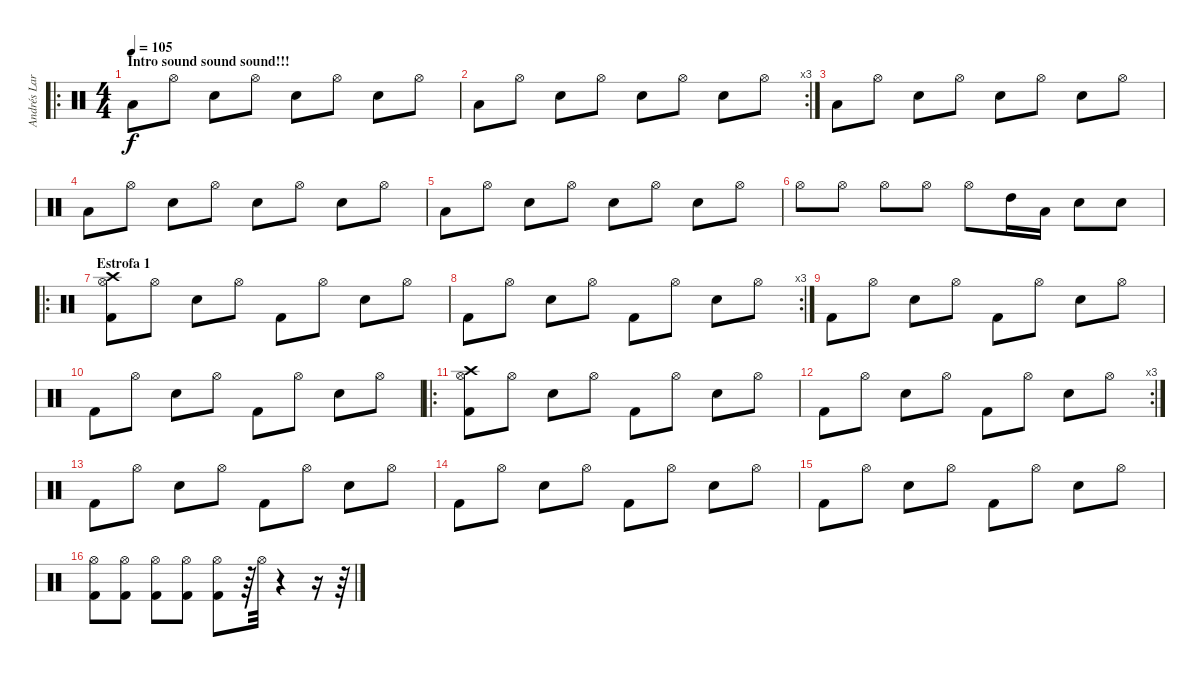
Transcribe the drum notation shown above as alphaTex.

\track ("Andrés Larraín (batería)" "Andrés Lar") {instrument percussion}
\staff {score}
\articulation defaults
\ro
\ts (4 4)
\section ("" "Intro sound sound sound!!!")
\tempo 105
\clef neutral
\ks c "Low Tom (hit)".8{dy f} "Hi-Hat (open)".8 "Hand Clap (hit)".8 "Hi-Hat (open)".8 "Hand Clap (hit)".8 "Hi-Hat (open)".8 "Electric Snare (hit)".8 "Hi-Hat (open)".8
|
\rc 3 "Low Tom (hit)".8 "Hi-Hat (open)".8 "Hand Clap (hit)".8 "Hi-Hat (open)".8 "Hand Clap (hit)".8 "Hi-Hat (open)".8 "Electric Snare (hit)".8 "Hi-Hat (open)".8
|
"Low Tom (hit)".8 "Hi-Hat (open)".8 "Hand Clap (hit)".8 "Hi-Hat (open)".8 "Hand Clap (hit)".8 "Hi-Hat (open)".8 "Electric Snare (hit)".8 "Hi-Hat (open)".8 |
"Low Tom (hit)".8 "Hi-Hat (open)".8 "Hand Clap (hit)".8 "Hi-Hat (open)".8 "Hand Clap (hit)".8 "Hi-Hat (open)".8 "Electric Snare (hit)".8 "Hi-Hat (open)".8 |
"Low Tom (hit)".8 "Hi-Hat (open)".8 "Hand Clap (hit)".8 "Hi-Hat (open)".8 "Hand Clap (hit)".8 "Hi-Hat (open)".8 "Electric Snare (hit)".8 "Hi-Hat (open)".8 |
"Hi-Hat (open)".8 "Hi-Hat (open)".8 "Hi-Hat (open)".8 "Hi-Hat (open)".8 "Hi-Hat (open)".8 "High Tom (hit)".16 "Low Tom (hit)".16 "Snare (hit) 2".8 "Snare (hit) 2".8 |
\ro
\section ("" "Estrofa 1")
("Crash high (hit)" "Hi-Hat (open)" "Kick (hit) 2").8 "Hi-Hat (open)".8 "Snare (hit) 2".8 "Hi-Hat (open)".8 "Kick (hit) 2".8 "Hi-Hat (open)".8 "Snare (hit) 2".8 "Hi-Hat (open)".8 |
\rc 3 "Kick (hit) 2".8 "Hi-Hat (open)".8 "Snare (hit) 2".8 "Hi-Hat (open)".8 "Kick (hit) 2".8 "Hi-Hat (open)".8 "Snare (hit) 2".8 "Hi-Hat (open)".8
|
"Kick (hit) 2".8 "Hi-Hat (open)".8 "Snare (hit) 2".8 "Hi-Hat (open)".8 "Kick (hit) 2".8 "Hi-Hat (open)".8 "Snare (hit) 2".8 "Hi-Hat (open)".8 |
"Kick (hit) 2".8 "Hi-Hat (open)".8 "Snare (hit) 2".8 "Hi-Hat (open)".8 "Kick (hit) 2".8 "Hi-Hat (open)".8 "Snare (hit) 2".8 "Hi-Hat (open)".8 |
\ro
("Crash high (hit)" "Hi-Hat (open)" "Kick (hit) 2").8 "Hi-Hat (open)".8 "Snare (hit) 2".8 "Hi-Hat (open)".8 "Kick (hit) 2".8 "Hi-Hat (open)".8 "Snare (hit) 2".8 "Hi-Hat (open)".8 |
\rc 3 "Kick (hit) 2".8 "Hi-Hat (open)".8 "Snare (hit) 2".8 "Hi-Hat (open)".8 "Kick (hit) 2".8 "Hi-Hat (open)".8 "Snare (hit) 2".8 "Hi-Hat (open)".8
|
"Kick (hit) 2".8 "Hi-Hat (open)".8 "Snare (hit) 2".8 "Hi-Hat (open)".8 "Kick (hit) 2".8 "Hi-Hat (open)".8 "Snare (hit) 2".8 "Hi-Hat (open)".8 |
"Kick (hit) 2".8 "Hi-Hat (open)".8 "Snare (hit) 2".8 "Hi-Hat (open)".8 "Kick (hit) 2".8 "Hi-Hat (open)".8 "Snare (hit) 2".8 "Hi-Hat (open)".8 |
"Kick (hit) 2".8 "Hi-Hat (open)".8 "Snare (hit) 2".8 "Hi-Hat (open)".8 "Kick (hit) 2".8 "Hi-Hat (open)".8 "Snare (hit) 2".8 "Hi-Hat (open)".8 |
("Hi-Hat (open)" "Kick (hit) 2").8 ("Hi-Hat (open)" "Kick (hit) 2").8 ("Hi-Hat (open)" "Kick (hit) 2").8 ("Hi-Hat (open)" "Kick (hit) 2").8 ("Hi-Hat (open)" "Kick (hit) 2").8 r.64 "Hi-Hat (open)".32 r.4 r.16 r.64
